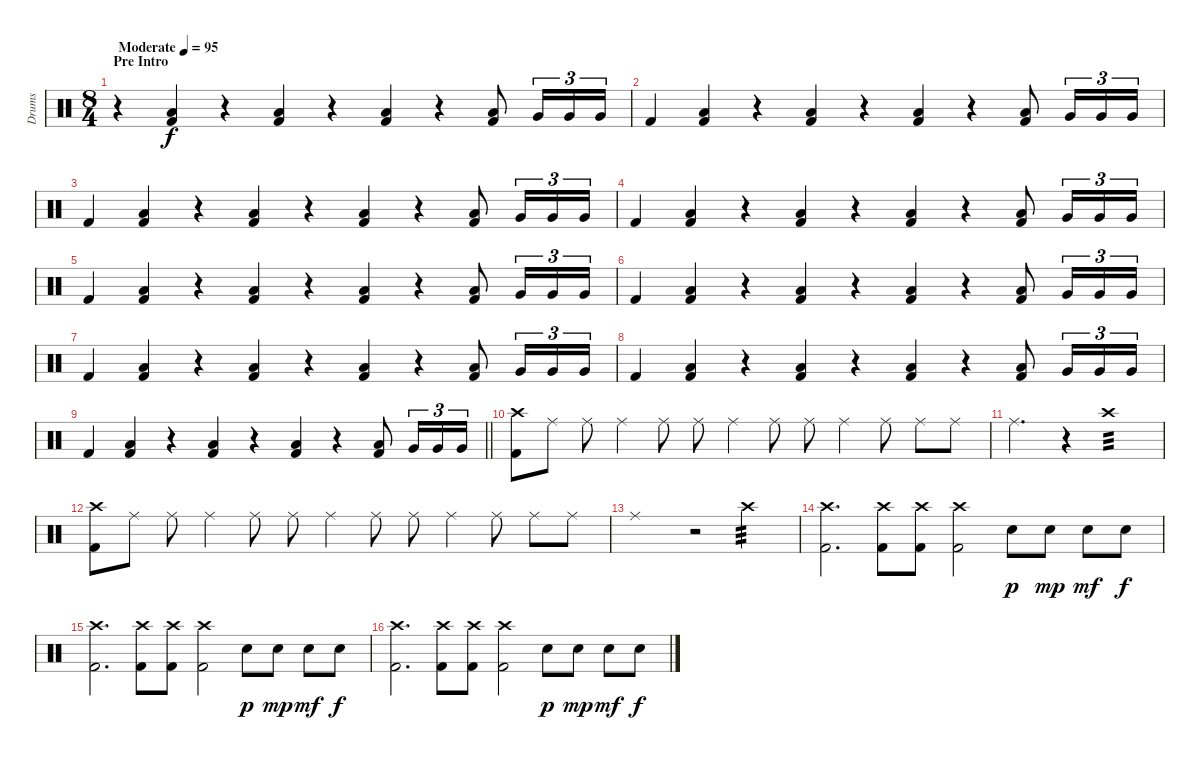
\track ("Drums" "Drums") {instrument percussion}
\staff {score}
\articulation defaults
\ts (8 4)
\section ("" "Pre Intro")
\tempo (95 "Moderate")
\clef neutral
\ks c
r.4{dy f} ("Low Tom (hit)" "Kick (hit) 2").4 r.4 ("Low Tom (hit)" "Kick (hit) 2").4 r.4 ("Low Tom (hit)" "Kick (hit) 2").4 r.4 ("Low Tom (hit)" "Kick (hit) 2").8 "Very Low Tom (hit)".16{tu (3 2)} "Very Low Tom (hit)".16{tu (3 2)} "Very Low Tom (hit)".16{tu (3 2)} |
"Kick (hit) 2".4 ("Low Tom (hit)" "Kick (hit) 2").4 r.4 ("Low Tom (hit)" "Kick (hit) 2").4 r.4 ("Low Tom (hit)" "Kick (hit) 2").4 r.4 ("Low Tom (hit)" "Kick (hit) 2").8 "Very Low Tom (hit)".16{tu (3 2)} "Very Low Tom (hit)".16{tu (3 2)} "Very Low Tom (hit)".16{tu (3 2)} |
"Kick (hit) 2".4 ("Low Tom (hit)" "Kick (hit) 2").4 r.4 ("Low Tom (hit)" "Kick (hit) 2").4 r.4 ("Low Tom (hit)" "Kick (hit) 2").4 r.4 ("Low Tom (hit)" "Kick (hit) 2").8 "Very Low Tom (hit)".16{tu (3 2)} "Very Low Tom (hit)".16{tu (3 2)} "Very Low Tom (hit)".16{tu (3 2)} |
"Kick (hit) 2".4 ("Low Tom (hit)" "Kick (hit) 2").4 r.4 ("Low Tom (hit)" "Kick (hit) 2").4 r.4 ("Low Tom (hit)" "Kick (hit) 2").4 r.4 ("Low Tom (hit)" "Kick (hit) 2").8 "Very Low Tom (hit)".16{tu (3 2)} "Very Low Tom (hit)".16{tu (3 2)} "Very Low Tom (hit)".16{tu (3 2)} |
"Kick (hit) 2".4 ("Low Tom (hit)" "Kick (hit) 2").4 r.4 ("Low Tom (hit)" "Kick (hit) 2").4 r.4 ("Low Tom (hit)" "Kick (hit) 2").4 r.4 ("Low Tom (hit)" "Kick (hit) 2").8 "Very Low Tom (hit)".16{tu (3 2)} "Very Low Tom (hit)".16{tu (3 2)} "Very Low Tom (hit)".16{tu (3 2)} |
"Kick (hit) 2".4 ("Low Tom (hit)" "Kick (hit) 2").4 r.4 ("Low Tom (hit)" "Kick (hit) 2").4 r.4 ("Low Tom (hit)" "Kick (hit) 2").4 r.4 ("Low Tom (hit)" "Kick (hit) 2").8 "Very Low Tom (hit)".16{tu (3 2)} "Very Low Tom (hit)".16{tu (3 2)} "Very Low Tom (hit)".16{tu (3 2)} |
"Kick (hit) 2".4 ("Low Tom (hit)" "Kick (hit) 2").4 r.4 ("Low Tom (hit)" "Kick (hit) 2").4 r.4 ("Low Tom (hit)" "Kick (hit) 2").4 r.4 ("Low Tom (hit)" "Kick (hit) 2").8 "Very Low Tom (hit)".16{tu (3 2)} "Very Low Tom (hit)".16{tu (3 2)} "Very Low Tom (hit)".16{tu (3 2)} |
"Kick (hit) 2".4 ("Low Tom (hit)" "Kick (hit) 2").4 r.4 ("Low Tom (hit)" "Kick (hit) 2").4 r.4 ("Low Tom (hit)" "Kick (hit) 2").4 r.4 ("Low Tom (hit)" "Kick (hit) 2").8 "Very Low Tom (hit)".16{tu (3 2)} "Very Low Tom (hit)".16{tu (3 2)} "Very Low Tom (hit)".16{tu (3 2)} |
\barLineRight lightlight "Kick (hit) 2".4
("Low Tom (hit)" "Kick (hit) 2").4 r.4 ("Low Tom (hit)" "Kick (hit) 2").4 r.4 ("Low Tom (hit)" "Kick (hit) 2").4 r.4 ("Low Tom (hit)" "Kick (hit) 2").8 "Very Low Tom (hit)".16{tu (3 2)} "Very Low Tom (hit)".16{tu (3 2)} "Very Low Tom (hit)".16{tu (3 2)} |
("Crash high (hit)" "Kick (hit) 2").8 "Ride (middle)".8 "Ride (middle)".8 "Ride (middle)".4 "Ride (middle)".8 "Ride (middle)".8 "Ride (middle)".4 "Ride (middle)".8 "Ride (middle)".8 "Ride (middle)".4 "Ride (middle)".8 "Ride (middle)".8 "Ride (middle)".8 |
"Ride (middle)".2{d} r.4{volume 0} "Crash high (hit)".1{tp 3 volume 13} |
("Crash high (hit)" "Kick (hit) 2").8 "Ride (middle)".8 "Ride (middle)".8 "Ride (middle)".4 "Ride (middle)".8 "Ride (middle)".8 "Ride (middle)".4 "Ride (middle)".8 "Ride (middle)".8 "Ride (middle)".4 "Ride (middle)".8 "Ride (middle)".8 "Ride (middle)".8 |
"Ride (middle)".1 r.2{volume 0} "Crash high (hit)".2{tp 3 volume 13} |
("Crash high (hit)" "Kick (hit) 2").2{d} ("Kick (hit) 2" "Crash high (hit)").8 ("Kick (hit) 2" "Crash high (hit)").8 ("Kick (hit) 2" "Crash high (hit)").2 "Snare (hit) 2".8{dy p} "Snare (hit) 2".8{dy mp} "Snare (hit) 2".8{dy mf} "Snare (hit) 2".8{dy f} |
("Crash high (hit)" "Kick (hit) 2").2{d} ("Kick (hit) 2" "Crash high (hit)").8 ("Kick (hit) 2" "Crash high (hit)").8 ("Kick (hit) 2" "Crash high (hit)").2 "Snare (hit) 2".8{dy p} "Snare (hit) 2".8{dy mp} "Snare (hit) 2".8{dy mf} "Snare (hit) 2".8{dy f} |
("Crash high (hit)" "Kick (hit) 2").2{d} ("Kick (hit) 2" "Crash high (hit)").8 ("Kick (hit) 2" "Crash high (hit)").8 ("Kick (hit) 2" "Crash high (hit)").2 "Snare (hit) 2".8{dy p} "Snare (hit) 2".8{dy mp} "Snare (hit) 2".8{dy mf} "Snare (hit) 2".8{dy f}
